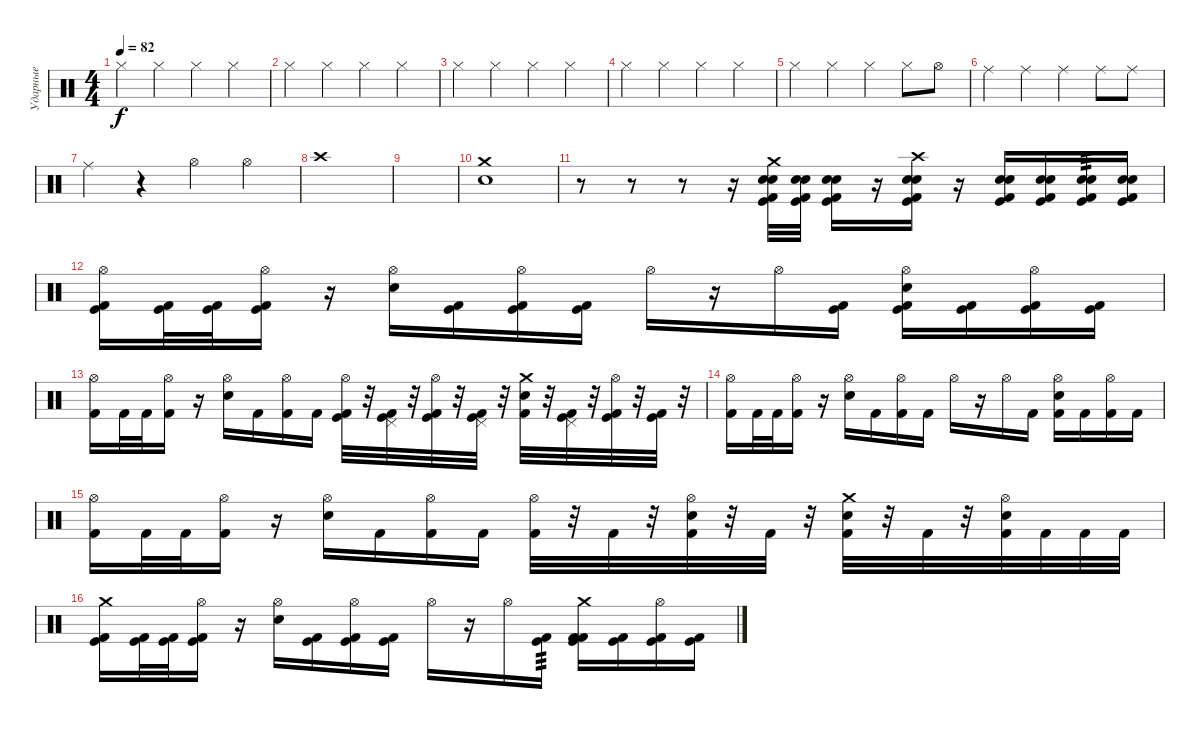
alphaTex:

\track ("Ударные" "Ударные") {instrument percussion}
\staff {score}
\articulation defaults
\ts (4 4)
\tempo 82
\clef neutral
\ks c "Hi-Hat (closed)".4{dy f} "Hi-Hat (closed)".4 "Hi-Hat (closed)".4 "Hi-Hat (closed)".4
|
"Hi-Hat (closed)".4 "Hi-Hat (closed)".4 "Hi-Hat (closed)".4 "Hi-Hat (closed)".4 |
"Hi-Hat (closed)".4 "Hi-Hat (closed)".4 "Hi-Hat (closed)".4 "Hi-Hat (closed)".4 |
"Hi-Hat (closed)".4 "Hi-Hat (closed)".4 "Hi-Hat (closed)".4 "Hi-Hat (closed)".4 |
"Hi-Hat (closed)".4 "Hi-Hat (closed)".4 "Hi-Hat (closed)".4 "Hi-Hat (closed)".8 "Hi-Hat (open)".8 |
"Ride (middle)".4 "Ride (middle)".4 "Ride (middle)".4 "Ride (middle)".8 "Ride (middle)".8 |
"Ride (middle)".4 r.4 "Hi-Hat (open)".4 "Hi-Hat (open)".4 |
"Crash high (hit)".1 |
|
("Crash medium (hit)" "Snare (hit)").1 |
r.8 r.8 r.8 r.16 ("Crash medium (hit)" "Snare (hit) 2" "Electric Snare (hit)" "Kick (hit) 2" "Kick (hit)").32 ("Snare (hit) 2" "Electric Snare (hit)" "Kick (hit) 2" "Kick (hit)").32 ("Snare (hit) 2" "Electric Snare (hit)" "Kick (hit) 2" "Kick (hit)").16 r.16 ("Crash high (hit)" "Snare (hit) 2" "Electric Snare (hit)" "Kick (hit) 2" "Kick (hit)").16 r.16 ("Snare (hit) 2" "Electric Snare (hit)" "Kick (hit) 2" "Kick (hit)").16 ("Snare (hit) 2" "Electric Snare (hit)" "Kick (hit) 2" "Kick (hit)").16 ("Snare (hit) 2" "Electric Snare (hit)" "Kick (hit) 2" "Kick (hit)").16{tp 3} ("Snare (hit) 2" "Electric Snare (hit)" "Kick (hit) 2" "Kick (hit)").16 |
("Hi-Hat (open)" "Kick (hit)" "Kick (hit) 2").16 ("Kick (hit)" "Kick (hit) 2").32 ("Kick (hit)" "Kick (hit) 2").32 ("Hi-Hat (open)" "Kick (hit)" "Kick (hit) 2").16 r.16 ("Hi-Hat (open)" "Snare (hit) 2").16 ("Kick (hit)" "Kick (hit) 2").16 ("Hi-Hat (open)" "Kick (hit)" "Kick (hit) 2").16 ("Kick (hit)" "Kick (hit) 2").16 "Hi-Hat (open)".16 r.16 "Hi-Hat (open)".16 ("Kick (hit)" "Kick (hit) 2").16 ("Hi-Hat (open)" "Kick (hit)" "Snare (hit) 2" "Kick (hit) 2").16 ("Kick (hit)" "Kick (hit) 2").16 ("Hi-Hat (open)" "Kick (hit)" "Kick (hit) 2").16 ("Kick (hit)" "Kick (hit) 2").16 |
("Hi-Hat (open)" "Kick (hit) 2").16 "Kick (hit) 2".32 "Kick (hit) 2".32 ("Hi-Hat (open)" "Kick (hit) 2").16 r.16 ("Hi-Hat (open)" "Snare (hit) 2").16 "Kick (hit) 2".16 ("Hi-Hat (open)" "Kick (hit) 2").16 "Kick (hit) 2".16 ("Hi-Hat (open)" "Kick (hit)" "Kick (hit) 2").32 r.32 ("Pedal Hi-Hat (hit)" "Kick (hit)" "Kick (hit) 2").32 r.32 ("Hi-Hat (open)" "Kick (hit)" "Kick (hit) 2").32 r.32 ("Pedal Hi-Hat (hit)" "Kick (hit)" "Kick (hit) 2").32 r.32 ("Crash medium (hit)" "Snare (hit) 2" "Kick (hit) 2").32 r.32 ("Pedal Hi-Hat (hit)" "Kick (hit)" "Kick (hit) 2").32 r.32 ("Hi-Hat (open)" "Kick (hit)" "Kick (hit) 2").32 r.32 ("Kick (hit)" "Kick (hit) 2").32 r.32 |
("Hi-Hat (open)" "Kick (hit) 2").16 "Kick (hit) 2".32 "Kick (hit) 2".32 ("Hi-Hat (open)" "Kick (hit) 2").16 r.16 ("Hi-Hat (open)" "Snare (hit) 2").16 "Kick (hit) 2".16 ("Hi-Hat (open)" "Kick (hit) 2").16 "Kick (hit) 2".16 "Hi-Hat (open)".16 r.16 "Hi-Hat (open)".16 "Kick (hit) 2".16 ("Hi-Hat (open)" "Snare (hit) 2" "Kick (hit) 2").16 "Kick (hit) 2".16 ("Hi-Hat (open)" "Kick (hit) 2").16 "Kick (hit) 2".16 |
("Hi-Hat (open)" "Kick (hit) 2").16 "Kick (hit) 2".32 "Kick (hit) 2".32 ("Hi-Hat (open)" "Kick (hit) 2").16 r.16 ("Hi-Hat (open)" "Snare (hit) 2").16 "Kick (hit) 2".16 ("Hi-Hat (open)" "Kick (hit) 2").16 "Kick (hit) 2".16 ("Hi-Hat (open)" "Kick (hit) 2").32 r.32 "Kick (hit) 2".32 r.32 ("Hi-Hat (open)" "Snare (hit) 2" "Kick (hit) 2").32 r.32 "Kick (hit) 2".32 r.32 ("Crash medium (hit)" "Snare (hit) 2" "Kick (hit) 2").32 r.32 "Kick (hit) 2".32 r.32 ("Hi-Hat (open)" "Snare (hit) 2" "Kick (hit) 2").32 "Kick (hit) 2".32 "Kick (hit) 2".32 "Kick (hit) 2".32 |
("Crash medium (hit)" "Kick (hit)" "Kick (hit) 2").16 ("Kick (hit)" "Kick (hit) 2").32 ("Kick (hit)" "Kick (hit) 2").32 ("Hi-Hat (open)" "Kick (hit)" "Kick (hit) 2").16 r.16 ("Hi-Hat (open)" "Snare (hit) 2").16 ("Kick (hit)" "Kick (hit) 2").16 ("Hi-Hat (open)" "Kick (hit)" "Kick (hit) 2").16 ("Kick (hit)" "Kick (hit) 2").16 "Hi-Hat (open)".16 r.16 "Hi-Hat (open)".16 ("Kick (hit)" "Kick (hit) 2").16{tp 3} ("Crash medium (hit)" "Kick (hit)" "Kick (hit) 2" "Kick (hit) 2").16 ("Kick (hit)" "Kick (hit) 2").16 ("Hi-Hat (open)" "Kick (hit)" "Kick (hit) 2").16 ("Kick (hit)" "Kick (hit) 2").16
